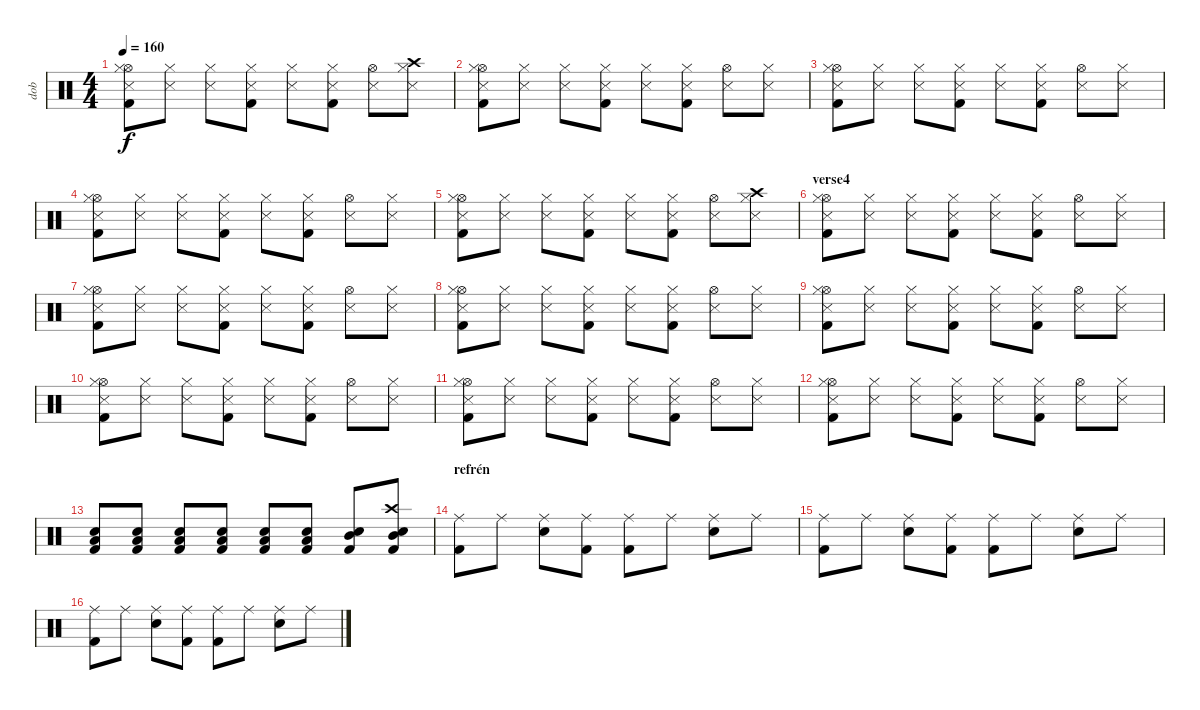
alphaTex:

\track ("dob" "dob") {instrument percussion}
\staff {score}
\articulation defaults
\ts (4 4)
\tempo 160
\clef neutral
\ks c
("Hi-Hat (open)" "Hi-Hat (closed)" "Snare (side stick) 3" "Kick (hit) 2").8{dy f} ("Hi-Hat (closed)" "Snare (side stick) 3").8 ("Hi-Hat (closed)" "Snare (side stick) 3").8 ("Hi-Hat (closed)" "Snare (side stick) 3" "Kick (hit) 2").8 ("Hi-Hat (closed)" "Snare (side stick) 3").8 ("Hi-Hat (closed)" "Snare (side stick) 3" "Kick (hit) 2").8 ("Hi-Hat (open)" "Snare (side stick) 3").8 ("Crash high (hit)" "Hi-Hat (closed)" "Snare (side stick) 3").8 |
("Hi-Hat (open)" "Hi-Hat (closed)" "Snare (side stick) 3" "Kick (hit) 2").8 ("Hi-Hat (closed)" "Snare (side stick) 3").8 ("Hi-Hat (closed)" "Snare (side stick) 3").8 ("Hi-Hat (closed)" "Snare (side stick) 3" "Kick (hit) 2").8 ("Hi-Hat (closed)" "Snare (side stick) 3").8 ("Hi-Hat (closed)" "Snare (side stick) 3" "Kick (hit) 2").8 ("Hi-Hat (open)" "Snare (side stick) 3").8 ("Hi-Hat (closed)" "Snare (side stick) 3").8 |
("Hi-Hat (open)" "Hi-Hat (closed)" "Snare (side stick) 3" "Kick (hit) 2").8 ("Hi-Hat (closed)" "Snare (side stick) 3").8 ("Hi-Hat (closed)" "Snare (side stick) 3").8 ("Hi-Hat (closed)" "Snare (side stick) 3" "Kick (hit) 2").8 ("Hi-Hat (closed)" "Snare (side stick) 3").8 ("Hi-Hat (closed)" "Snare (side stick) 3" "Kick (hit) 2").8 ("Hi-Hat (open)" "Snare (side stick) 3").8 ("Hi-Hat (closed)" "Snare (side stick) 3").8 |
("Hi-Hat (open)" "Hi-Hat (closed)" "Snare (side stick) 3" "Kick (hit) 2").8 ("Hi-Hat (closed)" "Snare (side stick) 3").8 ("Hi-Hat (closed)" "Snare (side stick) 3").8 ("Hi-Hat (closed)" "Snare (side stick) 3" "Kick (hit) 2").8 ("Hi-Hat (closed)" "Snare (side stick) 3").8 ("Hi-Hat (closed)" "Snare (side stick) 3" "Kick (hit) 2").8 ("Hi-Hat (open)" "Snare (side stick) 3").8 ("Hi-Hat (closed)" "Snare (side stick) 3").8 |
("Hi-Hat (open)" "Hi-Hat (closed)" "Snare (side stick) 3" "Kick (hit) 2").8 ("Hi-Hat (closed)" "Snare (side stick) 3").8 ("Hi-Hat (closed)" "Snare (side stick) 3").8 ("Hi-Hat (closed)" "Snare (side stick) 3" "Kick (hit) 2").8 ("Hi-Hat (closed)" "Snare (side stick) 3").8 ("Hi-Hat (closed)" "Snare (side stick) 3" "Kick (hit) 2").8 ("Hi-Hat (open)" "Snare (side stick) 3").8 ("Crash high (hit)" "Hi-Hat (closed)" "Snare (side stick) 3").8 |
\section ("" "verse4")
("Hi-Hat (open)" "Hi-Hat (closed)" "Snare (side stick) 3" "Kick (hit) 2").8 ("Hi-Hat (closed)" "Snare (side stick) 3").8 ("Hi-Hat (closed)" "Snare (side stick) 3").8 ("Hi-Hat (closed)" "Snare (side stick) 3" "Kick (hit) 2").8 ("Hi-Hat (closed)" "Snare (side stick) 3").8 ("Hi-Hat (closed)" "Snare (side stick) 3" "Kick (hit) 2").8 ("Hi-Hat (open)" "Snare (side stick) 3").8 ("Hi-Hat (closed)" "Snare (side stick) 3").8 |
("Hi-Hat (open)" "Hi-Hat (closed)" "Snare (side stick) 3" "Kick (hit) 2").8 ("Hi-Hat (closed)" "Snare (side stick) 3").8 ("Hi-Hat (closed)" "Snare (side stick) 3").8 ("Hi-Hat (closed)" "Snare (side stick) 3" "Kick (hit) 2").8 ("Hi-Hat (closed)" "Snare (side stick) 3").8 ("Hi-Hat (closed)" "Snare (side stick) 3" "Kick (hit) 2").8 ("Hi-Hat (open)" "Snare (side stick) 3").8 ("Hi-Hat (closed)" "Snare (side stick) 3").8 |
("Hi-Hat (open)" "Hi-Hat (closed)" "Snare (side stick) 3" "Kick (hit) 2").8 ("Hi-Hat (closed)" "Snare (side stick) 3").8 ("Hi-Hat (closed)" "Snare (side stick) 3").8 ("Hi-Hat (closed)" "Snare (side stick) 3" "Kick (hit) 2").8 ("Hi-Hat (closed)" "Snare (side stick) 3").8 ("Hi-Hat (closed)" "Snare (side stick) 3" "Kick (hit) 2").8 ("Hi-Hat (open)" "Snare (side stick) 3").8 ("Hi-Hat (closed)" "Snare (side stick) 3").8 |
("Hi-Hat (open)" "Hi-Hat (closed)" "Snare (side stick) 3" "Kick (hit) 2").8 ("Hi-Hat (closed)" "Snare (side stick) 3").8 ("Hi-Hat (closed)" "Snare (side stick) 3").8 ("Hi-Hat (closed)" "Snare (side stick) 3" "Kick (hit) 2").8 ("Hi-Hat (closed)" "Snare (side stick) 3").8 ("Hi-Hat (closed)" "Snare (side stick) 3" "Kick (hit) 2").8 ("Hi-Hat (open)" "Snare (side stick) 3").8 ("Hi-Hat (closed)" "Snare (side stick) 3").8 |
("Hi-Hat (open)" "Hi-Hat (closed)" "Snare (side stick) 3" "Kick (hit) 2").8 ("Hi-Hat (closed)" "Snare (side stick) 3").8 ("Hi-Hat (closed)" "Snare (side stick) 3").8 ("Hi-Hat (closed)" "Snare (side stick) 3" "Kick (hit) 2").8 ("Hi-Hat (closed)" "Snare (side stick) 3").8 ("Hi-Hat (closed)" "Snare (side stick) 3" "Kick (hit) 2").8 ("Hi-Hat (open)" "Snare (side stick) 3").8 ("Hi-Hat (closed)" "Snare (side stick) 3").8 |
("Hi-Hat (open)" "Hi-Hat (closed)" "Snare (side stick) 3" "Kick (hit) 2").8 ("Hi-Hat (closed)" "Snare (side stick) 3").8 ("Hi-Hat (closed)" "Snare (side stick) 3").8 ("Hi-Hat (closed)" "Snare (side stick) 3" "Kick (hit) 2").8 ("Hi-Hat (closed)" "Snare (side stick) 3").8 ("Hi-Hat (closed)" "Snare (side stick) 3" "Kick (hit) 2").8 ("Hi-Hat (open)" "Snare (side stick) 3").8 ("Hi-Hat (closed)" "Snare (side stick) 3").8 |
("Hi-Hat (open)" "Hi-Hat (closed)" "Snare (side stick) 3" "Kick (hit) 2").8 ("Hi-Hat (closed)" "Snare (side stick) 3").8 ("Hi-Hat (closed)" "Snare (side stick) 3").8 ("Hi-Hat (closed)" "Snare (side stick) 3" "Kick (hit) 2").8 ("Hi-Hat (closed)" "Snare (side stick) 3").8 ("Hi-Hat (closed)" "Snare (side stick) 3" "Kick (hit) 2").8 ("Hi-Hat (open)" "Snare (side stick) 3").8 ("Hi-Hat (closed)" "Snare (side stick) 3").8 |
("Snare (hit) 2" "Low Floor Tom (hit)" "Kick (hit) 2").8 ("Snare (hit) 2" "Low Floor Tom (hit)" "Kick (hit) 2").8 ("Snare (hit) 2" "Low Floor Tom (hit)" "Kick (hit) 2").8 ("Snare (hit) 2" "Low Floor Tom (hit)" "Kick (hit) 2").8 ("Snare (hit) 2" "Low Floor Tom (hit)" "Kick (hit) 2").8 ("Snare (hit) 2" "Low Floor Tom (hit)" "Kick (hit) 2").8 ("Snare (hit) 2" "Kick (hit) 2" "Mid Tom (hit)").8 ("Crash high (hit)" "Snare (hit) 2" "Kick (hit) 2" "Mid Tom (hit)").8 |
\section ("" "refrén")
("Ride (middle)" "Kick (hit) 2").8 "Ride (middle)".8 ("Ride (middle)" "Snare (hit) 2").8 ("Ride (middle)" "Kick (hit) 2").8 ("Ride (middle)" "Kick (hit) 2").8 "Ride (middle)".8 ("Ride (middle)" "Snare (hit) 2").8 "Ride (middle)".8 |
("Ride (middle)" "Kick (hit) 2").8 "Ride (middle)".8 ("Ride (middle)" "Snare (hit) 2").8 ("Ride (middle)" "Kick (hit) 2").8 ("Ride (middle)" "Kick (hit) 2").8 "Ride (middle)".8 ("Ride (middle)" "Snare (hit) 2").8 "Ride (middle)".8 |
("Ride (middle)" "Kick (hit) 2").8 "Ride (middle)".8 ("Ride (middle)" "Snare (hit) 2").8 ("Ride (middle)" "Kick (hit) 2").8 ("Ride (middle)" "Kick (hit) 2").8 "Ride (middle)".8 ("Ride (middle)" "Snare (hit) 2").8 "Ride (middle)".8
